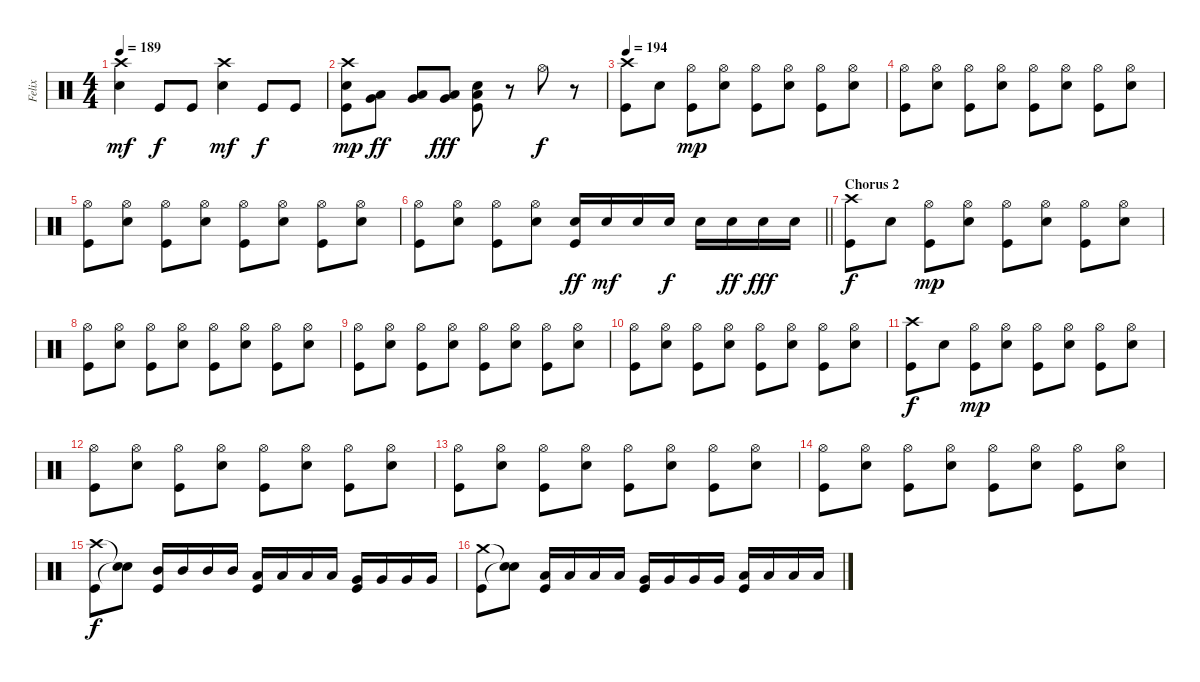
\track ("Felix" "Felix") {instrument percussion}
\staff {score}
\articulation defaults
\ts (4 4)
\tempo 189
\clef neutral
\ks c
("Crash high (hit)" "Snare (hit) 2").4{dy mf} "Kick (hit)".8{dy f} "Kick (hit)".8 ("Crash high (hit)" "Snare (hit) 2").4{dy mf} "Kick (hit)".8{dy f} "Kick (hit)".8 |
("Crash high (hit)" "Snare (hit) 2" "Kick (hit)").8{dy mp} ("Low Tom (hit)" "Very Low Tom (hit)").8{dy ff} ("Low Floor Tom (hit)" "Very Low Tom (hit)").8 ("Low Floor Tom (hit)" "Very Low Tom (hit)").8{dy fff} ("Low Tom (hit)" "Snare (hit) 2" "Kick (hit)").8 r.8 "Hi-Hat (open)".8{dy f} r.8 |
\tempo 194
("Crash high (hit)" "Kick (hit)").8 "Snare (hit) 2".8 ("Hi-Hat (open)" "Kick (hit)").8{dy mp} ("Hi-Hat (open)" "Snare (hit) 2").8 ("Hi-Hat (open)" "Kick (hit)").8 ("Hi-Hat (open)" "Snare (hit) 2").8 ("Hi-Hat (open)" "Kick (hit)").8 ("Hi-Hat (open)" "Snare (hit) 2").8 |
("Hi-Hat (open)" "Kick (hit)").8 ("Hi-Hat (open)" "Snare (hit) 2").8 ("Hi-Hat (open)" "Kick (hit)").8 ("Hi-Hat (open)" "Snare (hit) 2").8 ("Hi-Hat (open)" "Kick (hit)").8 ("Hi-Hat (open)" "Snare (hit) 2").8 ("Hi-Hat (open)" "Kick (hit)").8 ("Hi-Hat (open)" "Snare (hit) 2").8 |
("Hi-Hat (open)" "Kick (hit)").8 ("Hi-Hat (open)" "Snare (hit) 2").8 ("Hi-Hat (open)" "Kick (hit)").8 ("Hi-Hat (open)" "Snare (hit) 2").8 ("Hi-Hat (open)" "Kick (hit)").8 ("Hi-Hat (open)" "Snare (hit) 2").8 ("Hi-Hat (open)" "Kick (hit)").8 ("Hi-Hat (open)" "Snare (hit) 2").8 |
\barLineRight lightlight
("Hi-Hat (open)" "Kick (hit)").8 ("Hi-Hat (open)" "Snare (hit) 2").8 ("Hi-Hat (open)" "Kick (hit)").8 ("Hi-Hat (open)" "Snare (hit) 2").8 ("Snare (hit) 2" "Kick (hit)").16{dy ff} "Snare (hit) 2".16{dy mf} "Snare (hit) 2".16 "Snare (hit) 2".16{dy f} "Snare (hit) 2".16 "Snare (hit) 2".16{dy ff} "Snare (hit) 2".16{dy fff} "Snare (hit) 2".16 |
\section ("" "Chorus 2")
("Crash high (hit)" "Kick (hit)").8{dy f} "Snare (hit) 2".8 ("Hi-Hat (open)" "Kick (hit)").8{dy mp} ("Hi-Hat (open)" "Snare (hit) 2").8 ("Hi-Hat (open)" "Kick (hit)").8 ("Hi-Hat (open)" "Snare (hit) 2").8 ("Hi-Hat (open)" "Kick (hit)").8 ("Hi-Hat (open)" "Snare (hit) 2").8 |
("Hi-Hat (open)" "Kick (hit)").8 ("Hi-Hat (open)" "Snare (hit) 2").8 ("Hi-Hat (open)" "Kick (hit)").8 ("Hi-Hat (open)" "Snare (hit) 2").8 ("Hi-Hat (open)" "Kick (hit)").8 ("Hi-Hat (open)" "Snare (hit) 2").8 ("Hi-Hat (open)" "Kick (hit)").8 ("Hi-Hat (open)" "Snare (hit) 2").8 |
("Hi-Hat (open)" "Kick (hit)").8 ("Hi-Hat (open)" "Snare (hit) 2").8 ("Hi-Hat (open)" "Kick (hit)").8 ("Hi-Hat (open)" "Snare (hit) 2").8 ("Hi-Hat (open)" "Kick (hit)").8 ("Hi-Hat (open)" "Snare (hit) 2").8 ("Hi-Hat (open)" "Kick (hit)").8 ("Hi-Hat (open)" "Snare (hit) 2").8 |
("Hi-Hat (open)" "Kick (hit)").8 ("Hi-Hat (open)" "Snare (hit) 2").8 ("Hi-Hat (open)" "Kick (hit)").8 ("Hi-Hat (open)" "Snare (hit) 2").8 ("Hi-Hat (open)" "Kick (hit)").8 ("Hi-Hat (open)" "Snare (hit) 2").8 ("Hi-Hat (open)" "Kick (hit)").8 ("Hi-Hat (open)" "Snare (hit) 2").8 |
("Crash high (hit)" "Kick (hit)").8{dy f} "Snare (hit) 2".8 ("Hi-Hat (open)" "Kick (hit)").8{dy mp} ("Hi-Hat (open)" "Snare (hit) 2").8 ("Hi-Hat (open)" "Kick (hit)").8 ("Hi-Hat (open)" "Snare (hit) 2").8 ("Hi-Hat (open)" "Kick (hit)").8 ("Hi-Hat (open)" "Snare (hit) 2").8 |
("Hi-Hat (open)" "Kick (hit)").8 ("Hi-Hat (open)" "Snare (hit) 2").8 ("Hi-Hat (open)" "Kick (hit)").8 ("Hi-Hat (open)" "Snare (hit) 2").8 ("Hi-Hat (open)" "Kick (hit)").8 ("Hi-Hat (open)" "Snare (hit) 2").8 ("Hi-Hat (open)" "Kick (hit)").8 ("Hi-Hat (open)" "Snare (hit) 2").8 |
("Hi-Hat (open)" "Kick (hit)").8 ("Hi-Hat (open)" "Snare (hit) 2").8 ("Hi-Hat (open)" "Kick (hit)").8 ("Hi-Hat (open)" "Snare (hit) 2").8 ("Hi-Hat (open)" "Kick (hit)").8 ("Hi-Hat (open)" "Snare (hit) 2").8 ("Hi-Hat (open)" "Kick (hit)").8 ("Hi-Hat (open)" "Snare (hit) 2").8 |
("Hi-Hat (open)" "Kick (hit)").8 ("Hi-Hat (open)" "Snare (hit) 2").8 ("Hi-Hat (open)" "Kick (hit)").8 ("Hi-Hat (open)" "Snare (hit) 2").8 ("Hi-Hat (open)" "Kick (hit)").8 ("Hi-Hat (open)" "Snare (hit) 2").8 ("Hi-Hat (open)" "Kick (hit)").8 ("Hi-Hat (open)" "Snare (hit) 2").8 |
("Crash high (hit)" "Kick (hit)").8{dy f} ("Snare (hit)"{t} "Snare (hit)"{t}).8 ("Mid Tom (hit)" "Kick (hit)").16 "Mid Tom (hit)".16 "Mid Tom (hit)".16 "Mid Tom (hit)".16 ("Low Tom (hit)" "Kick (hit)").16 "Low Tom (hit)".16 "Low Tom (hit)".16 "Low Tom (hit)".16 ("Very Low Tom (hit)" "Kick (hit)").16 "Very Low Tom (hit)".16 "Very Low Tom (hit)".16 "Very Low Tom (hit)".16 |
("Crash medium (hit)" "Kick (hit)").8 ("Snare (hit)"{t} "Snare (hit)"{t}).8 ("Low Tom (hit)" "Kick (hit)").16 "Low Tom (hit)".16 "Low Tom (hit)".16 "Low Tom (hit)".16 ("Very Low Tom (hit)" "Kick (hit)").16 "Very Low Tom (hit)".16 "Very Low Tom (hit)".16 "Very Low Tom (hit)".16 ("Low Floor Tom (hit)" "Kick (hit)").16 "Low Floor Tom (hit)".16 "Low Floor Tom (hit)".16 "Low Floor Tom (hit)".16
